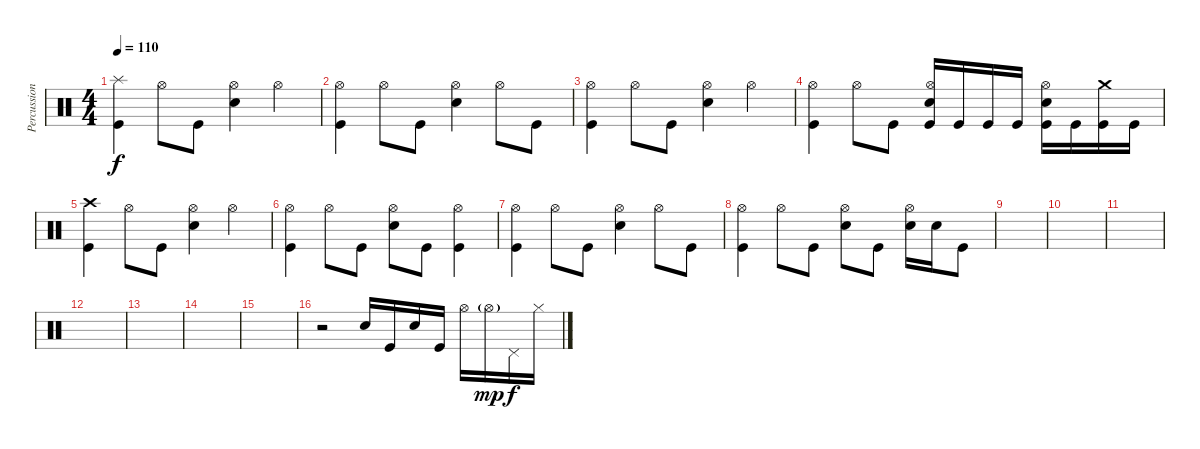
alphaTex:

\track ("Percussion" "Percussion") {instrument percussion}
\staff {score}
\articulation defaults
\ts (4 4)
\tempo 110
\clef neutral
\ks c
("Splash (hit)" "Kick (hit)").4{dy f} "Hi-Hat (open)".8 "Kick (hit)".8 ("Hi-Hat (open)" "Snare (hit) 2").4 "Hi-Hat (open)".4 |
("Hi-Hat (open)" "Kick (hit)").4 "Hi-Hat (open)".8 "Kick (hit)".8 ("Hi-Hat (open)" "Snare (hit) 2").4 "Hi-Hat (open)".8 "Kick (hit)".8 |
("Hi-Hat (open)" "Kick (hit)").4 "Hi-Hat (open)".8 "Kick (hit)".8 ("Hi-Hat (open)" "Snare (hit) 2").4 "Hi-Hat (open)".4 |
("Hi-Hat (open)" "Kick (hit)").4 "Hi-Hat (open)".8 "Kick (hit)".8 ("Hi-Hat (open)" "Snare (hit) 2" "Kick (hit)").16 "Kick (hit)".16 "Kick (hit)".16 "Kick (hit)".16 ("Hi-Hat (open)" "Snare (hit) 2" "Kick (hit)").16 "Kick (hit)".16 ("Crash medium (hit)" "Kick (hit)").16 "Kick (hit)".16 |
("Crash high (hit)" "Kick (hit)").4 "Hi-Hat (open)".8 "Kick (hit)".8 ("Hi-Hat (open)" "Snare (hit) 2").4 "Hi-Hat (open)".4 |
("Hi-Hat (open)" "Kick (hit)").4 "Hi-Hat (open)".8 "Kick (hit)".8 ("Hi-Hat (open)" "Snare (hit) 2").8 "Kick (hit)".8 ("Hi-Hat (open)" "Kick (hit)").4 |
("Hi-Hat (open)" "Kick (hit)").4 "Hi-Hat (open)".8 "Kick (hit)".8 ("Hi-Hat (open)" "Snare (hit) 2").4 "Hi-Hat (open)".8 "Kick (hit)".8 |
("Hi-Hat (open)" "Kick (hit)").4 "Hi-Hat (open)".8 "Kick (hit)".8 ("Hi-Hat (open)" "Snare (hit) 2").8 "Kick (hit)".8 ("Hi-Hat (open)" "Snare (hit) 2").16 "Snare (hit) 2".16 "Kick (hit)".8 |
|
|
|
|
|
|
|
r.2 "Snare (hit) 2".16 "Kick (hit)".16 "Snare (hit) 2".16 "Kick (hit)".16 "Hi-Hat (open)".16 "Hi-Hat (open)"{g}.16{dy mp} "Pedal Hi-Hat (hit)".16{dy f} "Hi-Hat (closed)".16
